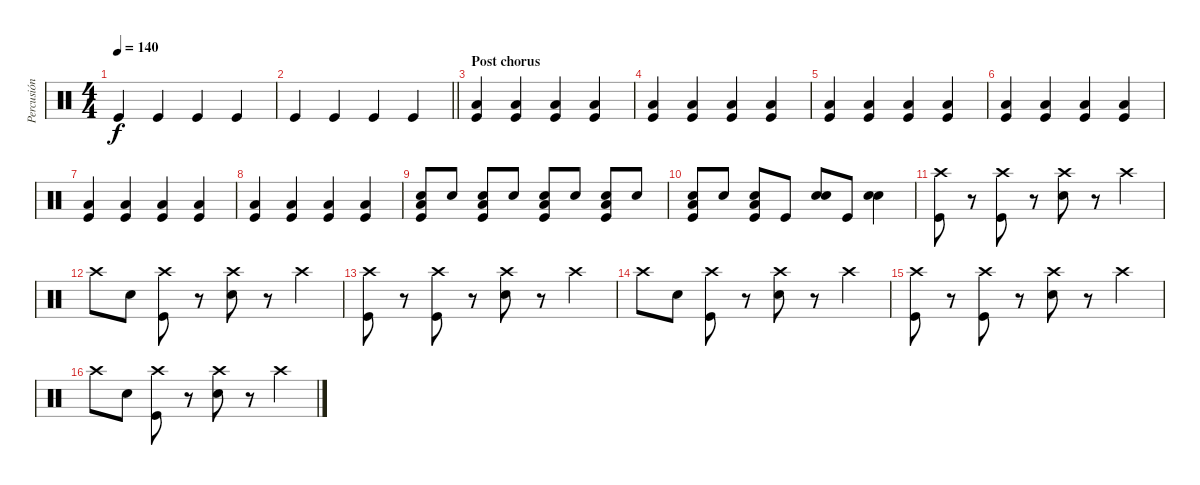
\track ("Percusión" "Percusión") {instrument percussion}
\staff {score}
\articulation defaults
\ts (4 4)
\tempo 140
\clef neutral
\ks c "Kick (hit)".4{dy f} "Kick (hit)".4 "Kick (hit)".4 "Kick (hit)".4
|
\barLineRight lightlight "Kick (hit)".4 "Kick (hit)".4 "Kick (hit)".4 "Kick (hit)".4
|
\section ("" "Post chorus")
("Kick (hit)" "Low Floor Tom (hit)").4 ("Kick (hit)" "Low Floor Tom (hit)").4 ("Kick (hit)" "Low Floor Tom (hit)").4 ("Kick (hit)" "Low Floor Tom (hit)").4 |
("Kick (hit)" "Low Floor Tom (hit)").4 ("Kick (hit)" "Low Floor Tom (hit)").4 ("Kick (hit)" "Low Floor Tom (hit)").4 ("Kick (hit)" "Low Floor Tom (hit)").4 |
("Kick (hit)" "Low Floor Tom (hit)").4 ("Kick (hit)" "Low Floor Tom (hit)").4 ("Kick (hit)" "Low Floor Tom (hit)").4 ("Kick (hit)" "Low Floor Tom (hit)").4 |
("Kick (hit)" "Low Floor Tom (hit)").4 ("Kick (hit)" "Low Floor Tom (hit)").4 ("Kick (hit)" "Low Floor Tom (hit)").4 ("Kick (hit)" "Low Floor Tom (hit)").4 |
("Kick (hit)" "Low Floor Tom (hit)").4 ("Kick (hit)" "Low Floor Tom (hit)").4 ("Kick (hit)" "Low Floor Tom (hit)").4 ("Kick (hit)" "Low Floor Tom (hit)").4 |
("Kick (hit)" "Low Floor Tom (hit)").4 ("Kick (hit)" "Low Floor Tom (hit)").4 ("Kick (hit)" "Low Floor Tom (hit)").4 ("Kick (hit)" "Low Floor Tom (hit)").4 |
("Snare (hit) 2" "Kick (hit)" "Low Floor Tom (hit)").8 "Snare (hit) 2".8 ("Snare (hit) 2" "Kick (hit)" "Low Floor Tom (hit)").8 "Snare (hit) 2".8 ("Snare (hit) 2" "Kick (hit)" "Low Floor Tom (hit)").8 "Snare (hit) 2".8 ("Snare (hit) 2" "Kick (hit)" "Low Floor Tom (hit)").8 "Snare (hit) 2".8 |
("Snare (hit) 2" "Kick (hit)" "Low Floor Tom (hit)").8 "Snare (hit) 2".8 ("Snare (hit) 2" "Kick (hit)" "Low Floor Tom (hit)").8 "Kick (hit)".8 ("Snare (hit) 2" "Snare (hit) 2").8 "Kick (hit)".8 ("Snare (hit) 2" "Snare (hit) 2").4 |
("Crash high (hit)" "Kick (hit)").8 r.8 ("Crash high (hit)" "Kick (hit)").8 r.8 ("Crash high (hit)" "Snare (hit) 2").8 r.8 "Crash high (hit)".4 |
"Crash high (hit)".8 "Snare (hit) 2".8 ("Crash high (hit)" "Kick (hit)").8 r.8 ("Crash high (hit)" "Snare (hit) 2").8 r.8 "Crash high (hit)".4 |
("Crash high (hit)" "Kick (hit)").8 r.8 ("Crash high (hit)" "Kick (hit)").8 r.8 ("Crash high (hit)" "Snare (hit) 2").8 r.8 "Crash high (hit)".4 |
"Crash high (hit)".8 "Snare (hit) 2".8 ("Crash high (hit)" "Kick (hit)").8 r.8 ("Crash high (hit)" "Snare (hit) 2").8 r.8 "Crash high (hit)".4 |
("Crash high (hit)" "Kick (hit)").8 r.8 ("Crash high (hit)" "Kick (hit)").8 r.8 ("Crash high (hit)" "Snare (hit) 2").8 r.8 "Crash high (hit)".4 |
"Crash high (hit)".8 "Snare (hit) 2".8 ("Crash high (hit)" "Kick (hit)").8 r.8 ("Crash high (hit)" "Snare (hit) 2").8 r.8 "Crash high (hit)".4
